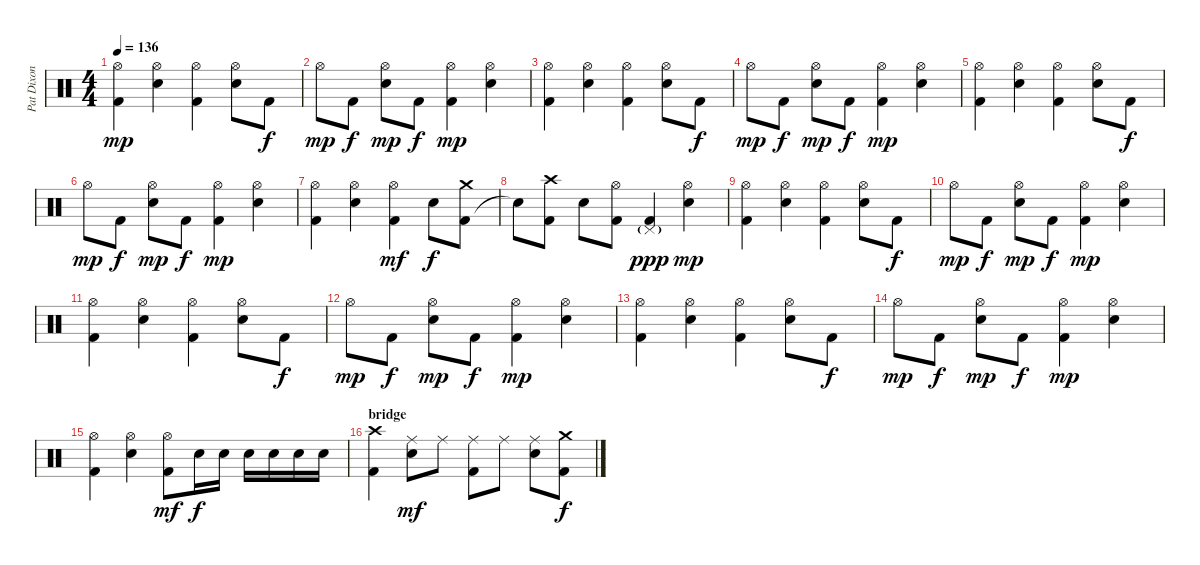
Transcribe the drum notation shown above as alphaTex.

\track ("Pat Dixon" "Pat Dixon") {instrument percussion}
\staff {score}
\articulation defaults
\ts (4 4)
\tempo 136
\clef neutral
\ks c
("Kick (hit) 2" "Hi-Hat (open)").4{dy mp} ("Hi-Hat (open)" "Snare (hit) 2").4 ("Kick (hit) 2" "Hi-Hat (open)").4 ("Hi-Hat (open)" "Snare (hit) 2").8 "Kick (hit) 2".8{dy f} |
"Hi-Hat (open)".8{dy mp} "Kick (hit) 2".8{dy f} ("Hi-Hat (open)" "Snare (hit) 2").8{dy mp} "Kick (hit) 2".8{dy f} ("Kick (hit) 2" "Hi-Hat (open)").4{dy mp} ("Hi-Hat (open)" "Snare (hit) 2").4 |
("Kick (hit) 2" "Hi-Hat (open)").4 ("Hi-Hat (open)" "Snare (hit) 2").4 ("Kick (hit) 2" "Hi-Hat (open)").4 ("Hi-Hat (open)" "Snare (hit) 2").8 "Kick (hit) 2".8{dy f} |
"Hi-Hat (open)".8{dy mp} "Kick (hit) 2".8{dy f} ("Hi-Hat (open)" "Snare (hit) 2").8{dy mp} "Kick (hit) 2".8{dy f} ("Kick (hit) 2" "Hi-Hat (open)").4{dy mp} ("Hi-Hat (open)" "Snare (hit) 2").4 |
("Kick (hit) 2" "Hi-Hat (open)").4 ("Hi-Hat (open)" "Snare (hit) 2").4 ("Kick (hit) 2" "Hi-Hat (open)").4 ("Hi-Hat (open)" "Snare (hit) 2").8 "Kick (hit) 2".8{dy f} |
"Hi-Hat (open)".8{dy mp} "Kick (hit) 2".8{dy f} ("Hi-Hat (open)" "Snare (hit) 2").8{dy mp} "Kick (hit) 2".8{dy f} ("Kick (hit) 2" "Hi-Hat (open)").4{dy mp} ("Hi-Hat (open)" "Snare (hit) 2").4 |
("Kick (hit) 2" "Hi-Hat (open)").4 ("Hi-Hat (open)" "Snare (hit) 2").4 ("Kick (hit) 2" "Hi-Hat (open)").4{dy mf} "Snare (hit) 2".8{dy f} ("Kick (hit) 2" "Crash medium (hit)").8 |
"Snare (hit)"{t}.8 ("Kick (hit) 2" "Crash high (hit)").8 "Snare (hit) 2".8 ("Kick (hit) 2" "Hi-Hat (open)").8 ("Kick (hit) 2" "Pedal Hi-Hat (hit)"{g}).4{dy ppp} ("Hi-Hat (open)" "Snare (hit) 2").4{dy mp} |
("Kick (hit) 2" "Hi-Hat (open)").4 ("Hi-Hat (open)" "Snare (hit) 2").4 ("Kick (hit) 2" "Hi-Hat (open)").4 ("Hi-Hat (open)" "Snare (hit) 2").8 "Kick (hit) 2".8{dy f} |
"Hi-Hat (open)".8{dy mp} "Kick (hit) 2".8{dy f} ("Hi-Hat (open)" "Snare (hit) 2").8{dy mp} "Kick (hit) 2".8{dy f} ("Kick (hit) 2" "Hi-Hat (open)").4{dy mp} ("Hi-Hat (open)" "Snare (hit) 2").4 |
("Kick (hit) 2" "Hi-Hat (open)").4 ("Hi-Hat (open)" "Snare (hit) 2").4 ("Kick (hit) 2" "Hi-Hat (open)").4 ("Hi-Hat (open)" "Snare (hit) 2").8 "Kick (hit) 2".8{dy f} |
"Hi-Hat (open)".8{dy mp} "Kick (hit) 2".8{dy f} ("Hi-Hat (open)" "Snare (hit) 2").8{dy mp} "Kick (hit) 2".8{dy f} ("Kick (hit) 2" "Hi-Hat (open)").4{dy mp} ("Hi-Hat (open)" "Snare (hit) 2").4 |
("Kick (hit) 2" "Hi-Hat (open)").4 ("Hi-Hat (open)" "Snare (hit) 2").4 ("Kick (hit) 2" "Hi-Hat (open)").4 ("Hi-Hat (open)" "Snare (hit) 2").8 "Kick (hit) 2".8{dy f} |
"Hi-Hat (open)".8{dy mp} "Kick (hit) 2".8{dy f} ("Hi-Hat (open)" "Snare (hit) 2").8{dy mp} "Kick (hit) 2".8{dy f} ("Kick (hit) 2" "Hi-Hat (open)").4{dy mp} ("Hi-Hat (open)" "Snare (hit) 2").4 |
("Kick (hit) 2" "Hi-Hat (open)").4 ("Hi-Hat (open)" "Snare (hit) 2").4 ("Kick (hit) 2" "Hi-Hat (open)").8{dy mf} "Snare (hit) 2".16{dy f} "Snare (hit) 2".16 "Snare (hit) 2".16 "Snare (hit) 2".16 "Snare (hit) 2".16 "Snare (hit) 2".16 |
\section ("" "bridge")
("Kick (hit) 2" "Crash high (hit)").4 ("Ride (middle)" "Snare (hit) 2").8{dy mf} "Ride (middle)".8 ("Kick (hit) 2" "Ride (middle)").8 "Ride (middle)".8 ("Ride (middle)" "Snare (hit) 2").8 ("Kick (hit) 2" "Crash medium (hit)").8{dy f}
